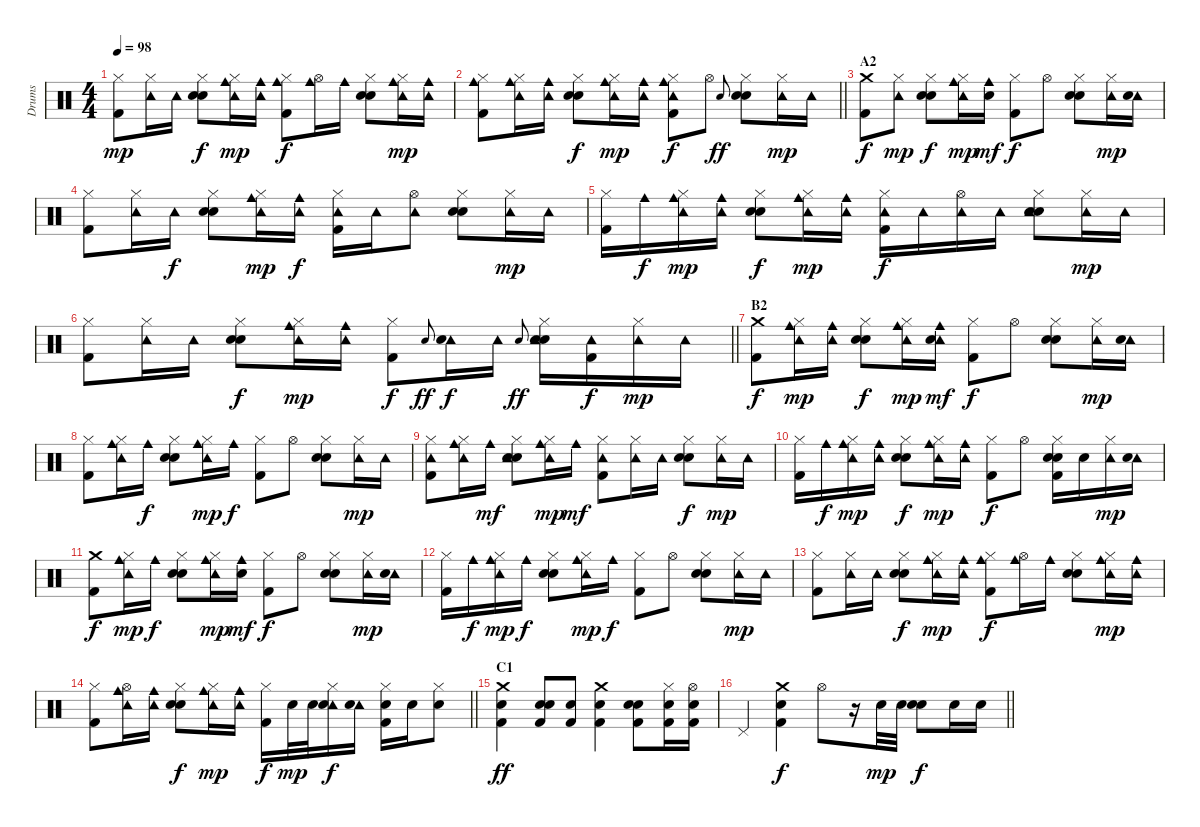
\track ("Drums" "Drums") {instrument percussion}
\staff {score}
\articulation defaults
\ts (4 4)
\tempo 98
\clef neutral
\ks c
("Hi-Hat (closed)" "Kick (hit) 2").8{dy mp} ("Tambourine (hit)" "Hi-Hat (closed)").16 "Tambourine (hit)".16 ("Hand Clap (hit)" "Hi-Hat (closed)" "Electric Snare (hit)").8{dy f} ("Cowbell medium (hit)" "Tambourine (hit)" "Hi-Hat (closed)").16{dy mp} ("Cowbell medium (hit)" "Tambourine (hit)").16 ("Cowbell medium (hit)" "Hi-Hat (closed)" "Kick (hit) 2").8{dy f} ("Cowbell medium (hit)" "Hi-Hat (open)").16 "Cowbell medium (hit)".16 ("Hand Clap (hit)" "Hi-Hat (closed)" "Electric Snare (hit)").8 ("Cowbell medium (hit)" "Tambourine (hit)" "Hi-Hat (closed)").16{dy mp} ("Cowbell medium (hit)" "Tambourine (hit)").16 |
\barLineRight lightlight
("Cowbell medium (hit)" "Hi-Hat (closed)" "Kick (hit) 2").8 ("Cowbell medium (hit)" "Tambourine (hit)" "Hi-Hat (closed)").16 ("Cowbell medium (hit)" "Tambourine (hit)").16 ("Hand Clap (hit)" "Hi-Hat (closed)" "Electric Snare (hit)").8{dy f} ("Cowbell medium (hit)" "Tambourine (hit)" "Hi-Hat (closed)").16{dy mp} ("Cowbell medium (hit)" "Tambourine (hit)").16 ("Cowbell medium (hit)" "Tambourine (hit)" "Hi-Hat (closed)" "Kick (hit) 2").8{dy f} "Hi-Hat (open)".8 "Electric Snare (hit)".8{gr onbeat dy ff} ("Hand Clap (hit)" "Hi-Hat (closed)" "Electric Snare (hit)").8 ("Tambourine (hit)" "Hi-Hat (closed)").16{dy mp} "Tambourine (hit)".16 |
\section ("" "A2")
("Crash medium (hit)" "Kick (hit) 2").8{dy f} ("Tambourine (hit)" "Hi-Hat (closed)").8{dy mp} ("Hand Clap (hit)" "Hi-Hat (closed)" "Electric Snare (hit)").8{dy f} ("Cowbell medium (hit)" "Tambourine (hit)" "Hi-Hat (closed)").16{dy mp} ("Cowbell medium (hit)" "Electric Snare (hit)").16{dy mf} ("Hi-Hat (closed)" "Kick (hit) 2").8{dy f} "Hi-Hat (open)".8 ("Hand Clap (hit)" "Hi-Hat (closed)" "Electric Snare (hit)").8 ("Tambourine (hit)" "Hi-Hat (closed)").16{dy mp} ("Tambourine (hit)" "Electric Snare (hit)").16 |
("Hi-Hat (closed)" "Kick (hit) 2").8 ("Tambourine (hit)" "Hi-Hat (closed)").16 "Tambourine (hit)".16{dy f} ("Hand Clap (hit)" "Hi-Hat (closed)" "Electric Snare (hit)").8 ("Cowbell medium (hit)" "Tambourine (hit)" "Hi-Hat (closed)").16{dy mp} ("Cowbell medium (hit)" "Tambourine (hit)").16{dy f} ("Tambourine (hit)" "Hi-Hat (closed)" "Kick (hit) 2").16 "Tambourine (hit)".16 ("Tambourine (hit)" "Hi-Hat (open)").8 ("Hand Clap (hit)" "Hi-Hat (closed)" "Electric Snare (hit)").8 ("Tambourine (hit)" "Hi-Hat (closed)").16{dy mp} "Tambourine (hit)".16 |
("Hi-Hat (closed)" "Kick (hit) 2").16 "Cowbell medium (hit)".16{dy f} ("Cowbell medium (hit)" "Tambourine (hit)" "Hi-Hat (closed)").16{dy mp} ("Cowbell medium (hit)" "Tambourine (hit)").16 ("Hand Clap (hit)" "Hi-Hat (closed)" "Electric Snare (hit)").8{dy f} ("Cowbell medium (hit)" "Tambourine (hit)" "Hi-Hat (closed)").16{dy mp} ("Cowbell medium (hit)" "Tambourine (hit)").16 ("Tambourine (hit)" "Hi-Hat (closed)" "Kick (hit) 2").16{dy f} "Tambourine (hit)".16 ("Tambourine (hit)" "Hi-Hat (open)").16 "Tambourine (hit)".16 ("Hand Clap (hit)" "Tambourine (hit)" "Hi-Hat (closed)" "Electric Snare (hit)").8 ("Tambourine (hit)" "Hi-Hat (closed)").16{dy mp} "Tambourine (hit)".16 |
\barLineRight lightlight
("Hi-Hat (closed)" "Kick (hit) 2").8 ("Tambourine (hit)" "Hi-Hat (closed)").16 "Tambourine (hit)".16 ("Hand Clap (hit)" "Hi-Hat (closed)" "Electric Snare (hit)").8{dy f} ("Cowbell medium (hit)" "Tambourine (hit)" "Hi-Hat (closed)").16{dy mp} ("Cowbell medium (hit)" "Tambourine (hit)").16 ("Hi-Hat (closed)" "Kick (hit) 2").8{dy f} "Electric Snare (hit)".8{gr onbeat dy ff} ("Tambourine (hit)" "Electric Snare (hit)").16{dy f} "Tambourine (hit)".16 "Electric Snare (hit)".8{gr onbeat dy ff} ("Hand Clap (hit)" "Tambourine (hit)" "Hi-Hat (closed)" "Electric Snare (hit)").16 ("Tambourine (hit)" "Kick (hit) 2").16{dy f} ("Tambourine (hit)" "Hi-Hat (closed)").16{dy mp} "Tambourine (hit)".16 |
\section ("" "B2")
("Crash medium (hit)" "Kick (hit) 2").8{dy f} ("Cowbell medium (hit)" "Tambourine (hit)" "Hi-Hat (closed)").16{dy mp} ("Cowbell medium (hit)" "Tambourine (hit)").16 ("Hand Clap (hit)" "Hi-Hat (closed)" "Electric Snare (hit)").8{dy f} ("Cowbell medium (hit)" "Tambourine (hit)" "Hi-Hat (closed)").16{dy mp} ("Cowbell medium (hit)" "Tambourine (hit)" "Electric Snare (hit)").16{dy mf} ("Hi-Hat (closed)" "Kick (hit) 2").8{dy f} "Hi-Hat (open)".8 ("Hand Clap (hit)" "Hi-Hat (closed)" "Electric Snare (hit)").8 ("Tambourine (hit)" "Hi-Hat (closed)").16{dy mp} ("Tambourine (hit)" "Electric Snare (hit)").16 |
("Hi-Hat (closed)" "Kick (hit) 2").8 ("Cowbell medium (hit)" "Tambourine (hit)" "Hi-Hat (closed)").16 "Cowbell medium (hit)".16{dy f} ("Hand Clap (hit)" "Hi-Hat (closed)" "Electric Snare (hit)").8 ("Cowbell medium (hit)" "Tambourine (hit)" "Hi-Hat (closed)").16{dy mp} "Cowbell medium (hit)".16{dy f} ("Hi-Hat (closed)" "Kick (hit) 2").8 "Hi-Hat (open)".8 ("Hand Clap (hit)" "Hi-Hat (closed)" "Electric Snare (hit)").8 ("Tambourine (hit)" "Hi-Hat (closed)").16{dy mp} "Tambourine (hit)".16 |
("Tambourine (hit)" "Hi-Hat (closed)" "Kick (hit) 2").8 ("Cowbell medium (hit)" "Tambourine (hit)" "Hi-Hat (closed)").16 "Cowbell medium (hit)".16{dy mf} ("Hand Clap (hit)" "Tambourine (hit)" "Hi-Hat (closed)" "Electric Snare (hit)").8 ("Cowbell medium (hit)" "Tambourine (hit)" "Hi-Hat (closed)").16{dy mp} "Cowbell medium (hit)".16{dy mf} ("Tambourine (hit)" "Hi-Hat (closed)" "Kick (hit) 2").8 ("Tambourine (hit)" "Hi-Hat (closed)").16 "Tambourine (hit)".16 ("Hand Clap (hit)" "Hi-Hat (closed)" "Electric Snare (hit)").8{dy f} ("Tambourine (hit)" "Hi-Hat (closed)").16{dy mp} "Tambourine (hit)".16 |
("Hi-Hat (closed)" "Kick (hit) 2").16 "Cowbell medium (hit)".16{dy f} ("Cowbell medium (hit)" "Tambourine (hit)" "Hi-Hat (closed)").16{dy mp} ("Cowbell medium (hit)" "Tambourine (hit)").16 ("Hand Clap (hit)" "Hi-Hat (closed)" "Electric Snare (hit)").8{dy f} ("Cowbell medium (hit)" "Tambourine (hit)" "Hi-Hat (closed)").16{dy mp} ("Cowbell medium (hit)" "Tambourine (hit)").16 ("Hi-Hat (closed)" "Kick (hit) 2").8{dy f} "Hi-Hat (open)".8 ("Hand Clap (hit)" "Hi-Hat (closed)" "Electric Snare (hit)" "Kick (hit) 2").16 "Electric Snare (hit)".16 ("Tambourine (hit)" "Hi-Hat (closed)").16{dy mp} ("Tambourine (hit)" "Electric Snare (hit)").16 |
("Crash medium (hit)" "Kick (hit) 2").8{dy f} ("Cowbell medium (hit)" "Tambourine (hit)" "Hi-Hat (closed)").16{dy mp} "Cowbell medium (hit)".16{dy f} ("Hand Clap (hit)" "Hi-Hat (closed)" "Electric Snare (hit)").8 ("Cowbell medium (hit)" "Tambourine (hit)" "Hi-Hat (closed)").16{dy mp} ("Cowbell medium (hit)" "Electric Snare (hit)").16{dy mf} ("Hi-Hat (closed)" "Kick (hit) 2").8{dy f} "Hi-Hat (open)".8 ("Hand Clap (hit)" "Hi-Hat (closed)" "Electric Snare (hit)").8 ("Tambourine (hit)" "Hi-Hat (closed)").16{dy mp} ("Tambourine (hit)" "Electric Snare (hit)").16 |
("Hi-Hat (closed)" "Kick (hit) 2").16 "Cowbell medium (hit)".16{dy f} ("Cowbell medium (hit)" "Tambourine (hit)" "Hi-Hat (closed)").16{dy mp} "Cowbell medium (hit)".16{dy f} ("Hand Clap (hit)" "Hi-Hat (closed)" "Electric Snare (hit)").8 ("Cowbell medium (hit)" "Tambourine (hit)" "Hi-Hat (closed)").16{dy mp} "Cowbell medium (hit)".16{dy f} ("Hi-Hat (closed)" "Kick (hit) 2").8 "Hi-Hat (open)".8 ("Hand Clap (hit)" "Hi-Hat (closed)" "Electric Snare (hit)").8 ("Tambourine (hit)" "Hi-Hat (closed)").16{dy mp} "Tambourine (hit)".16 |
("Hi-Hat (closed)" "Kick (hit) 2").8 ("Tambourine (hit)" "Hi-Hat (closed)").16 "Tambourine (hit)".16 ("Hand Clap (hit)" "Hi-Hat (closed)" "Electric Snare (hit)").8{dy f} ("Cowbell medium (hit)" "Tambourine (hit)" "Hi-Hat (closed)").16{dy mp} ("Cowbell medium (hit)" "Tambourine (hit)").16 ("Cowbell medium (hit)" "Hi-Hat (closed)" "Kick (hit) 2").8{dy f} ("Cowbell medium (hit)" "Hi-Hat (open)").16 "Cowbell medium (hit)".16 ("Hand Clap (hit)" "Hi-Hat (closed)" "Electric Snare (hit)").8 ("Cowbell medium (hit)" "Tambourine (hit)" "Hi-Hat (closed)").16{dy mp} ("Cowbell medium (hit)" "Tambourine (hit)").16 |
\barLineRight lightlight
("Hi-Hat (closed)" "Kick (hit) 2").8 ("Cowbell medium (hit)" "Tambourine (hit)" "Hi-Hat (open)").16 ("Cowbell medium (hit)" "Tambourine (hit)").16 ("Hand Clap (hit)" "Hi-Hat (closed)" "Electric Snare (hit)").8{dy f} ("Cowbell medium (hit)" "Tambourine (hit)" "Hi-Hat (closed)").16{dy mp} ("Cowbell medium (hit)" "Tambourine (hit)").16 ("Hi-Hat (closed)" "Kick (hit) 2").16{dy f} "Electric Snare (hit)".32{dy mp} "Electric Snare (hit)".32 ("Tambourine (hit)" "Hi-Hat (closed)" "Electric Snare (hit)").16{dy f} ("Tambourine (hit)" "Electric Snare (hit)").16 ("Hi-Hat (closed)" "Electric Snare (hit)" "Kick (hit) 2").16 "Electric Snare (hit)".16 ("Hi-Hat (closed)" "Electric Snare (hit)").8 |
\section ("" "C1")
("Crash medium (hit)" "Electric Snare (hit)" "Kick (hit) 2").4{dy ff} ("Hand Clap (hit)" "Electric Snare (hit)" "Kick (hit) 2").8 ("Electric Snare (hit)" "Kick (hit) 2").8 ("Crash medium (hit)" "Electric Snare (hit)" "Kick (hit) 2").4 ("Hand Clap (hit)" "Electric Snare (hit)" "Kick (hit) 2").8 ("Hi-Hat (closed)" "Electric Snare (hit)" "Kick (hit) 2").16 ("Hi-Hat (open)" "Electric Snare (hit)" "Kick (hit) 2").16 |
\barLineRight lightlight "Pedal Hi-Hat (hit)".4
("Crash medium (hit)" "Hand Clap (hit)" "Kick (hit) 2").4{dy f} "Hi-Hat (open)".8 r.16 "Electric Snare (hit)".32{dy mp} "Electric Snare (hit)".32 ("Hand Clap (hit)" "Electric Snare (hit)").8{dy f} "Electric Snare (hit)".16 "Electric Snare (hit)".16
